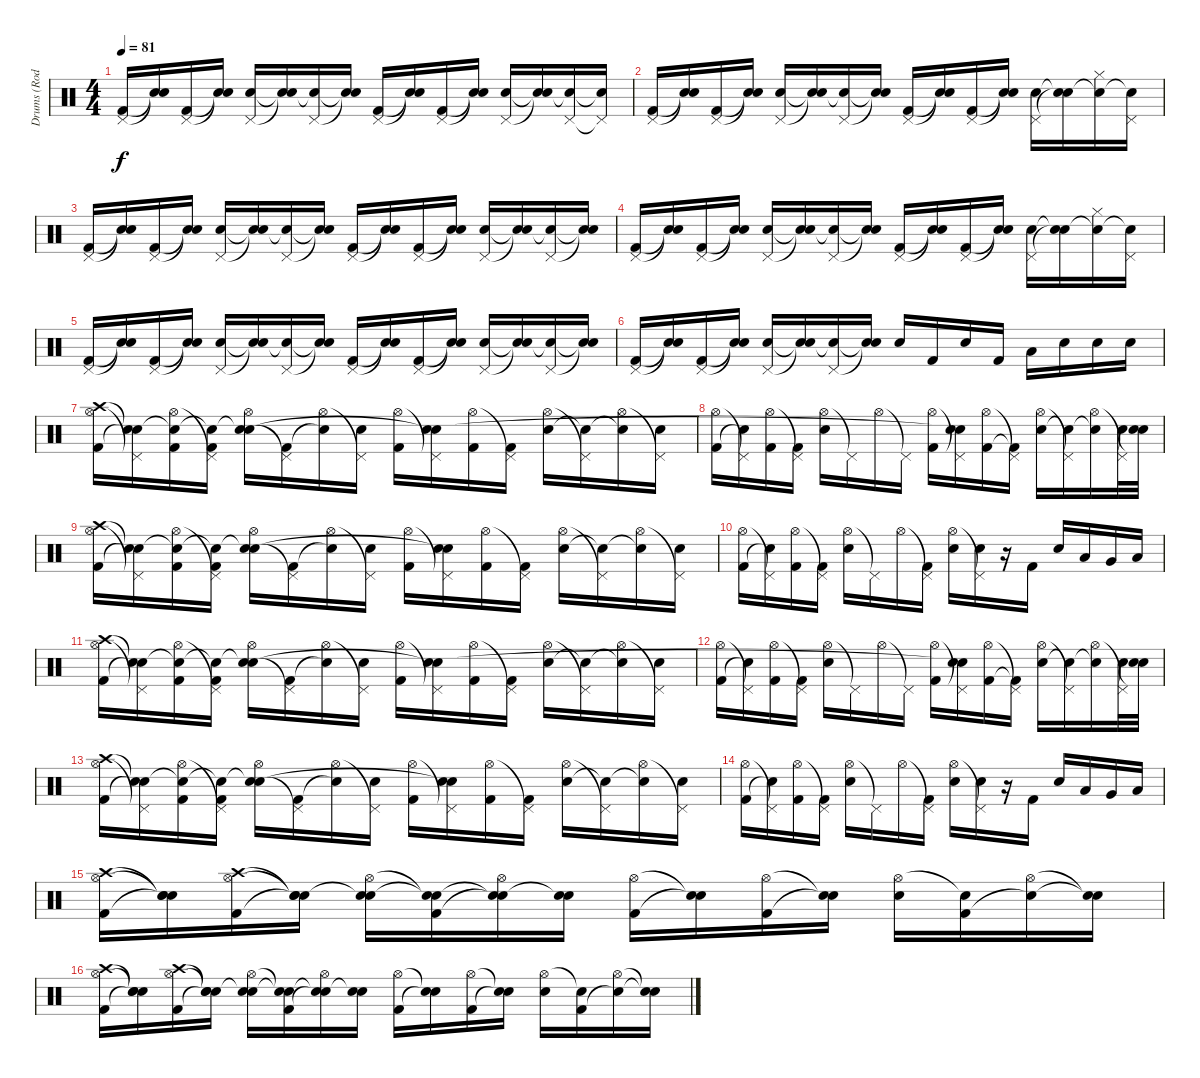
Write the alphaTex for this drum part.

\track ("Drums (Rod Bourdon)" "Drums (Rod") {instrument percussion}
\staff {score}
\articulation defaults
\ts (4 4)
\tempo 81
\clef neutral
\ks c
("Pedal Hi-Hat (hit)" "Kick (hit) 2").16{dy f} ("Snare (hit)"{t} "Snare (hit)"{t}).16 ("Pedal Hi-Hat (hit)" "Kick (hit) 2").16 ("Snare (hit)"{t} "Snare (hit)"{t}).16 ("Pedal Hi-Hat (hit)" "Electric Snare (hit)").16 ("Snare (hit)"{t} "Snare (hit)"{t}).16 ("Pedal Hi-Hat (hit)" "Snare (hit)"{t}).16 ("Snare (hit)"{t} "Snare (hit)"{t}).16 ("Pedal Hi-Hat (hit)" "Kick (hit) 2").16 ("Snare (hit)"{t} "Snare (hit)"{t}).16 ("Pedal Hi-Hat (hit)" "Kick (hit) 2").16 ("Snare (hit)"{t} "Snare (hit)"{t}).16 ("Pedal Hi-Hat (hit)" "Electric Snare (hit)").16 ("Snare (hit)"{t} "Snare (hit)"{t}).16 ("Pedal Hi-Hat (hit)" "Snare (hit)"{t}).16 ("Pedal Hi-Hat (hit)"{t} "Snare (hit)"{t}).16 |
("Pedal Hi-Hat (hit)" "Kick (hit) 2").16 ("Snare (hit)"{t} "Snare (hit)"{t}).16 ("Pedal Hi-Hat (hit)" "Kick (hit) 2").16 ("Snare (hit)"{t} "Snare (hit)"{t}).16 ("Pedal Hi-Hat (hit)" "Electric Snare (hit)").16 ("Snare (hit)"{t} "Snare (hit)"{t}).16 ("Pedal Hi-Hat (hit)" "Snare (hit)"{t}).16 ("Snare (hit)"{t} "Snare (hit)"{t}).16 ("Pedal Hi-Hat (hit)" "Kick (hit) 2").16 ("Snare (hit)"{t} "Snare (hit)"{t}).16 ("Pedal Hi-Hat (hit)" "Kick (hit) 2").16 ("Snare (hit)"{t} "Snare (hit)"{t}).16 ("Pedal Hi-Hat (hit)" "Electric Snare (hit)").16 ("Snare (hit)"{t} "Snare (hit)"{t}).16 ("Hi-Hat (closed)" "Snare (hit)"{t}).16 ("Pedal Hi-Hat (hit)" "Snare (hit)"{t}).16 |
("Pedal Hi-Hat (hit)" "Kick (hit) 2").16 ("Snare (hit)"{t} "Snare (hit)"{t}).16 ("Pedal Hi-Hat (hit)" "Kick (hit) 2").16 ("Snare (hit)"{t} "Snare (hit)"{t}).16 ("Pedal Hi-Hat (hit)" "Electric Snare (hit)").16 ("Snare (hit)"{t} "Snare (hit)"{t}).16 ("Pedal Hi-Hat (hit)" "Snare (hit)"{t}).16 ("Snare (hit)"{t} "Snare (hit)"{t}).16 ("Pedal Hi-Hat (hit)" "Kick (hit) 2").16 ("Snare (hit)"{t} "Snare (hit)"{t}).16 ("Pedal Hi-Hat (hit)" "Kick (hit) 2").16 ("Snare (hit)"{t} "Snare (hit)"{t}).16 ("Pedal Hi-Hat (hit)" "Electric Snare (hit)").16 ("Snare (hit)"{t} "Snare (hit)"{t}).16 ("Pedal Hi-Hat (hit)" "Snare (hit)"{t}).16 ("Snare (hit)"{t} "Snare (hit)"{t}).16 |
("Pedal Hi-Hat (hit)" "Kick (hit) 2").16 ("Snare (hit)"{t} "Snare (hit)"{t}).16 ("Pedal Hi-Hat (hit)" "Kick (hit) 2").16 ("Snare (hit)"{t} "Snare (hit)"{t}).16 ("Pedal Hi-Hat (hit)" "Electric Snare (hit)").16 ("Snare (hit)"{t} "Snare (hit)"{t}).16 ("Pedal Hi-Hat (hit)" "Snare (hit)"{t}).16 ("Snare (hit)"{t} "Snare (hit)"{t}).16 ("Pedal Hi-Hat (hit)" "Kick (hit) 2").16 ("Snare (hit)"{t} "Snare (hit)"{t}).16 ("Pedal Hi-Hat (hit)" "Kick (hit) 2").16 ("Snare (hit)"{t} "Snare (hit)"{t}).16 ("Pedal Hi-Hat (hit)" "Electric Snare (hit)").16 ("Snare (hit)"{t} "Snare (hit)"{t}).16 ("Hi-Hat (closed)" "Snare (hit)"{t}).16 ("Pedal Hi-Hat (hit)" "Snare (hit)"{t}).16 |
("Pedal Hi-Hat (hit)" "Kick (hit) 2").16 ("Snare (hit)"{t} "Snare (hit)"{t}).16 ("Pedal Hi-Hat (hit)" "Kick (hit) 2").16 ("Snare (hit)"{t} "Snare (hit)"{t}).16 ("Pedal Hi-Hat (hit)" "Electric Snare (hit)").16 ("Snare (hit)"{t} "Snare (hit)"{t}).16 ("Pedal Hi-Hat (hit)" "Snare (hit)"{t}).16 ("Snare (hit)"{t} "Snare (hit)"{t}).16 ("Pedal Hi-Hat (hit)" "Kick (hit) 2").16 ("Snare (hit)"{t} "Snare (hit)"{t}).16 ("Pedal Hi-Hat (hit)" "Kick (hit) 2").16 ("Snare (hit)"{t} "Snare (hit)"{t}).16 ("Pedal Hi-Hat (hit)" "Electric Snare (hit)").16 ("Snare (hit)"{t} "Snare (hit)"{t}).16 ("Pedal Hi-Hat (hit)" "Snare (hit)"{t}).16 ("Snare (hit)"{t} "Snare (hit)"{t}).16 |
("Pedal Hi-Hat (hit)" "Kick (hit) 2").16 ("Snare (hit)"{t} "Snare (hit)"{t}).16 ("Pedal Hi-Hat (hit)" "Kick (hit) 2").16 ("Snare (hit)"{t} "Snare (hit)"{t}).16 ("Pedal Hi-Hat (hit)" "Electric Snare (hit)").16 ("Snare (hit)"{t} "Snare (hit)"{t}).16 ("Pedal Hi-Hat (hit)" "Snare (hit)"{t}).16 ("Snare (hit)"{t} "Snare (hit)"{t}).16 "Electric Snare (hit)".16 "Kick (hit) 2".16 "Electric Snare (hit)".16 "Kick (hit) 2".16 "Low Tom (hit)".16 "Electric Snare (hit)".16 "Electric Snare (hit)".16 "Electric Snare (hit)".16 |
("Crash high (hit)" "Hi-Hat (open)" "Kick (hit) 2").16{volume 13} ("Snare (hit)"{t} "Pedal Hi-Hat (hit)"{t} "Snare (hit)"{t}).16 ("Snare (hit)"{t} "Hi-Hat (open)" "Kick (hit) 2").16 ("Snare (hit)"{t} "Pedal Hi-Hat (hit)"{t} "Kick (hit) 2").16 ("Snare (hit)"{t} "Hi-Hat (open)" "Electric Snare (hit)").16 ("Pedal Hi-Hat (hit)"{t} "Kick (hit) 2").16 ("Hi-Hat (open)" "Snare (hit)"{t}).16 ("Pedal Hi-Hat (hit)"{t} "Electric Snare (hit)").16 ("Hi-Hat (open)" "Kick (hit) 2").16 ("Pedal Hi-Hat (hit)"{t} "Electric Snare (hit)" "Snare (hit)"{t}).16 ("Hi-Hat (open)" "Kick (hit) 2").16 ("Pedal Hi-Hat (hit)"{t} "Kick (hit) 2").16 ("Hi-Hat (open)" "Electric Snare (hit)").16 ("Pedal Hi-Hat (hit)"{t} "Snare (hit)"{t}).16 ("Hi-Hat (open)" "Snare (hit)"{t}).16 ("Pedal Hi-Hat (hit)"{t} "Electric Snare (hit)").16 |
("Hi-Hat (open)" "Kick (hit) 2").16 ("Pedal Hi-Hat (hit)"{t} "Snare (hit)"{t}).16 ("Hi-Hat (open)" "Kick (hit) 2").16 ("Pedal Hi-Hat (hit)"{t} "Kick (hit) 2").16 ("Hi-Hat (open)" "Electric Snare (hit)").16 "Pedal Hi-Hat (hit)"{t}.16 "Hi-Hat (open)".16 "Pedal Hi-Hat (hit)"{t}.16 ("Hi-Hat (open)" "Kick (hit) 2").16 ("Pedal Hi-Hat (hit)"{t} "Electric Snare (hit)" "Snare (hit)"{t}).16 ("Hi-Hat (open)" "Kick (hit) 2").16 ("Pedal Hi-Hat (hit)"{t} "Kick (hit) 2"{t}).16 ("Hi-Hat (open)" "Electric Snare (hit)").16 ("Pedal Hi-Hat (hit)"{t} "Snare (hit)"{t}).16 ("Hi-Hat (open)" "Electric Snare (hit)"{t}).16 ("Pedal Hi-Hat (hit)"{t} "Electric Snare (hit)").32 ("Snare (hit)"{t} "Electric Snare (hit)").32 |
("Crash high (hit)" "Hi-Hat (open)" "Kick (hit) 2").16 ("Snare (hit)"{t} "Pedal Hi-Hat (hit)"{t} "Snare (hit)"{t}).16 ("Snare (hit)"{t} "Hi-Hat (open)" "Kick (hit) 2").16 ("Snare (hit)"{t} "Pedal Hi-Hat (hit)"{t} "Kick (hit) 2").16 ("Snare (hit)"{t} "Hi-Hat (open)" "Electric Snare (hit)").16 ("Pedal Hi-Hat (hit)"{t} "Kick (hit) 2").16 ("Hi-Hat (open)" "Snare (hit)"{t}).16 ("Pedal Hi-Hat (hit)"{t} "Electric Snare (hit)").16 ("Hi-Hat (open)" "Kick (hit) 2").16 ("Pedal Hi-Hat (hit)"{t} "Electric Snare (hit)" "Snare (hit)"{t}).16 ("Hi-Hat (open)" "Kick (hit) 2").16 ("Pedal Hi-Hat (hit)"{t} "Kick (hit) 2").16 ("Hi-Hat (open)" "Electric Snare (hit)").16 ("Pedal Hi-Hat (hit)"{t} "Snare (hit)"{t}).16 ("Hi-Hat (open)" "Snare (hit)"{t}).16 ("Pedal Hi-Hat (hit)"{t} "Electric Snare (hit)").16 |
("Hi-Hat (open)" "Kick (hit) 2").16 ("Pedal Hi-Hat (hit)"{t} "Snare (hit)"{t}).16 ("Hi-Hat (open)" "Kick (hit) 2").16 ("Pedal Hi-Hat (hit)"{t} "Kick (hit) 2").16 ("Hi-Hat (open)" "Electric Snare (hit)").16 "Pedal Hi-Hat (hit)"{t}.16 "Hi-Hat (open)".16 ("Pedal Hi-Hat (hit)"{t} "Kick (hit) 2").16 ("Hi-Hat (open)" "Electric Snare (hit)").16 ("Pedal Hi-Hat (hit)"{t} "Electric Snare (hit)").16 r.16 "Kick (hit) 2".16 "Electric Snare (hit)".16 "Low Tom (hit)".16 "Very Low Tom (hit)".16 "Low Floor Tom (hit)".16 |
("Crash high (hit)" "Hi-Hat (open)" "Kick (hit) 2").16{volume 13} ("Snare (hit)"{t} "Pedal Hi-Hat (hit)"{t} "Snare (hit)"{t}).16 ("Snare (hit)"{t} "Hi-Hat (open)" "Kick (hit) 2").16 ("Snare (hit)"{t} "Pedal Hi-Hat (hit)"{t} "Kick (hit) 2").16 ("Snare (hit)"{t} "Hi-Hat (open)" "Electric Snare (hit)").16 ("Pedal Hi-Hat (hit)"{t} "Kick (hit) 2").16 ("Hi-Hat (open)" "Snare (hit)"{t}).16 ("Pedal Hi-Hat (hit)"{t} "Electric Snare (hit)").16 ("Hi-Hat (open)" "Kick (hit) 2").16 ("Pedal Hi-Hat (hit)"{t} "Electric Snare (hit)" "Snare (hit)"{t}).16 ("Hi-Hat (open)" "Kick (hit) 2").16 ("Pedal Hi-Hat (hit)"{t} "Kick (hit) 2").16 ("Hi-Hat (open)" "Electric Snare (hit)").16 ("Pedal Hi-Hat (hit)"{t} "Snare (hit)"{t}).16 ("Hi-Hat (open)" "Snare (hit)"{t}).16 ("Pedal Hi-Hat (hit)"{t} "Electric Snare (hit)").16 |
("Hi-Hat (open)" "Kick (hit) 2").16 ("Pedal Hi-Hat (hit)"{t} "Snare (hit)"{t}).16 ("Hi-Hat (open)" "Kick (hit) 2").16 ("Pedal Hi-Hat (hit)"{t} "Kick (hit) 2").16 ("Hi-Hat (open)" "Electric Snare (hit)").16 "Pedal Hi-Hat (hit)"{t}.16 "Hi-Hat (open)".16 "Pedal Hi-Hat (hit)"{t}.16 ("Hi-Hat (open)" "Kick (hit) 2").16 ("Pedal Hi-Hat (hit)"{t} "Electric Snare (hit)" "Snare (hit)"{t}).16 ("Hi-Hat (open)" "Kick (hit) 2").16 ("Pedal Hi-Hat (hit)"{t} "Kick (hit) 2"{t}).16 ("Hi-Hat (open)" "Electric Snare (hit)").16 ("Pedal Hi-Hat (hit)"{t} "Snare (hit)"{t}).16 ("Hi-Hat (open)" "Electric Snare (hit)"{t}).16 ("Pedal Hi-Hat (hit)"{t} "Electric Snare (hit)").32 ("Snare (hit)"{t} "Electric Snare (hit)").32 |
("Crash high (hit)" "Hi-Hat (open)" "Kick (hit) 2").16 ("Snare (hit)"{t} "Pedal Hi-Hat (hit)"{t} "Snare (hit)"{t}).16 ("Snare (hit)"{t} "Hi-Hat (open)" "Kick (hit) 2").16 ("Snare (hit)"{t} "Pedal Hi-Hat (hit)"{t} "Kick (hit) 2").16 ("Snare (hit)"{t} "Hi-Hat (open)" "Electric Snare (hit)").16 ("Pedal Hi-Hat (hit)"{t} "Kick (hit) 2").16 ("Hi-Hat (open)" "Snare (hit)"{t}).16 ("Pedal Hi-Hat (hit)"{t} "Electric Snare (hit)").16 ("Hi-Hat (open)" "Kick (hit) 2").16 ("Pedal Hi-Hat (hit)"{t} "Electric Snare (hit)" "Snare (hit)"{t}).16 ("Hi-Hat (open)" "Kick (hit) 2").16 ("Pedal Hi-Hat (hit)"{t} "Kick (hit) 2").16 ("Hi-Hat (open)" "Electric Snare (hit)").16 ("Pedal Hi-Hat (hit)"{t} "Snare (hit)"{t}).16 ("Hi-Hat (open)" "Snare (hit)"{t}).16 ("Pedal Hi-Hat (hit)"{t} "Electric Snare (hit)").16 |
("Hi-Hat (open)" "Kick (hit) 2").16 ("Pedal Hi-Hat (hit)"{t} "Snare (hit)"{t}).16 ("Hi-Hat (open)" "Kick (hit) 2").16 ("Pedal Hi-Hat (hit)"{t} "Kick (hit) 2").16 ("Hi-Hat (open)" "Electric Snare (hit)").16 "Pedal Hi-Hat (hit)"{t}.16 "Hi-Hat (open)".16 ("Pedal Hi-Hat (hit)"{t} "Kick (hit) 2").16 ("Hi-Hat (open)" "Electric Snare (hit)").16 ("Pedal Hi-Hat (hit)"{t} "Electric Snare (hit)").16 r.16 "Kick (hit) 2".16 "Electric Snare (hit)".16 "Low Tom (hit)".16 "Very Low Tom (hit)".16 "Low Floor Tom (hit)".16 |
("Crash high (hit)" "Hi-Hat (open)" "Kick (hit) 2").16 ("Snare (hit)"{t} "Snare (hit)"{t} "Snare (hit)"{t}).16 ("Crash high (hit)" "Hi-Hat (open)" "Kick (hit) 2").16 ("Snare (hit)"{t} "Snare (hit)"{t} "Snare (hit)"{t}).16 ("Snare (hit)"{t} "Hi-Hat (open)" "Electric Snare (hit)").16 ("Snare (hit)"{t} "Snare (hit)"{t} "Kick (hit) 2").16 ("Snare (hit)"{t} "Hi-Hat (open)" "Snare (hit)"{t}).16 ("Snare (hit)"{t} "Electric Snare (hit)").16 ("Hi-Hat (open)" "Kick (hit) 2").16 ("Snare (hit)"{t} "Snare (hit)"{t}).16 ("Hi-Hat (open)" "Kick (hit) 2").16 ("Snare (hit)"{t} "Snare (hit)"{t}).16 ("Hi-Hat (open)" "Electric Snare (hit)").16 ("Snare (hit)"{t} "Kick (hit) 2").16 ("Hi-Hat (open)" "Snare (hit)"{t}).16 ("Snare (hit)"{t} "Snare (hit)"{t}).16 |
("Crash high (hit)" "Hi-Hat (open)" "Kick (hit) 2").16 ("Snare (hit)"{t} "Snare (hit)"{t} "Snare (hit)"{t}).16 ("Crash high (hit)" "Hi-Hat (open)" "Kick (hit) 2").16 ("Snare (hit)"{t} "Snare (hit)"{t} "Snare (hit)"{t}).16 ("Snare (hit)"{t} "Hi-Hat (open)" "Electric Snare (hit)").16 ("Snare (hit)"{t} "Snare (hit)"{t} "Kick (hit) 2").16 ("Snare (hit)"{t} "Hi-Hat (open)" "Snare (hit)"{t}).16 ("Snare (hit)"{t} "Electric Snare (hit)").16 ("Hi-Hat (open)" "Kick (hit) 2").16 ("Snare (hit)"{t} "Snare (hit)"{t}).16 ("Hi-Hat (open)" "Kick (hit) 2").16 ("Snare (hit)"{t} "Snare (hit)"{t}).16 ("Hi-Hat (open)" "Electric Snare (hit)").16 ("Snare (hit)"{t} "Kick (hit) 2").16 ("Hi-Hat (open)" "Snare (hit)"{t}).16 ("Snare (hit)"{t} "Snare (hit)"{t}).16
